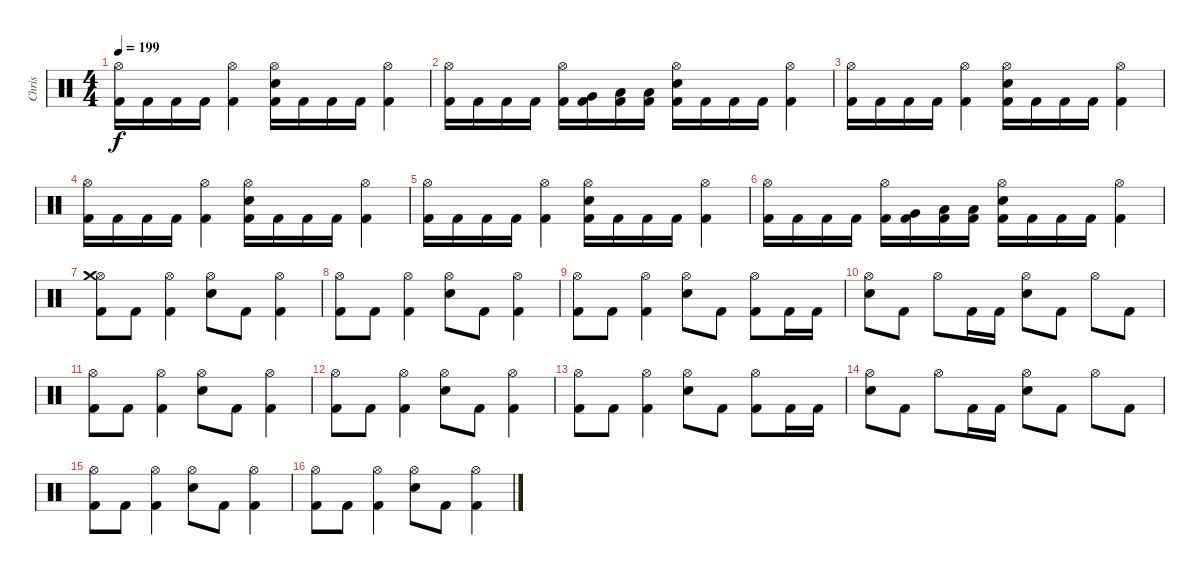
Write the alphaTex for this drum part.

\track ("Chris" "Chris") {instrument percussion}
\staff {score}
\articulation defaults
\ts (4 4)
\tempo 199
\clef neutral
\ks c
("Hi-Hat (open)" "Kick (hit) 2").16{dy f} "Kick (hit) 2".16 "Kick (hit) 2".16 "Kick (hit) 2".16 ("Hi-Hat (open)" "Kick (hit) 2").4 ("Hi-Hat (open)" "Kick (hit) 2" "Electric Snare (hit)").16 "Kick (hit) 2".16 "Kick (hit) 2".16 "Kick (hit) 2".16 ("Hi-Hat (open)" "Kick (hit) 2").4 |
("Hi-Hat (open)" "Kick (hit) 2").16 "Kick (hit) 2".16 "Kick (hit) 2".16 "Kick (hit) 2".16 ("Hi-Hat (open)" "Kick (hit) 2").16 ("Kick (hit) 2" "Very Low Tom (hit)").16 ("Kick (hit) 2" "Low Floor Tom (hit)").16 ("Kick (hit) 2" "Low Floor Tom (hit)").16 ("Hi-Hat (open)" "Kick (hit) 2" "Electric Snare (hit)").16 "Kick (hit) 2".16 "Kick (hit) 2".16 "Kick (hit) 2".16 ("Hi-Hat (open)" "Kick (hit) 2").4 |
("Hi-Hat (open)" "Kick (hit) 2").16 "Kick (hit) 2".16 "Kick (hit) 2".16 "Kick (hit) 2".16 ("Hi-Hat (open)" "Kick (hit) 2").4 ("Hi-Hat (open)" "Kick (hit) 2" "Electric Snare (hit)").16 "Kick (hit) 2".16 "Kick (hit) 2".16 "Kick (hit) 2".16 ("Hi-Hat (open)" "Kick (hit) 2").4 |
("Hi-Hat (open)" "Kick (hit) 2").16 "Kick (hit) 2".16 "Kick (hit) 2".16 "Kick (hit) 2".16 ("Hi-Hat (open)" "Kick (hit) 2").4 ("Hi-Hat (open)" "Kick (hit) 2" "Electric Snare (hit)").16 "Kick (hit) 2".16 "Kick (hit) 2".16 "Kick (hit) 2".16 ("Hi-Hat (open)" "Kick (hit) 2").4 |
("Hi-Hat (open)" "Kick (hit) 2").16 "Kick (hit) 2".16 "Kick (hit) 2".16 "Kick (hit) 2".16 ("Hi-Hat (open)" "Kick (hit) 2").4 ("Hi-Hat (open)" "Kick (hit) 2" "Electric Snare (hit)").16 "Kick (hit) 2".16 "Kick (hit) 2".16 "Kick (hit) 2".16 ("Hi-Hat (open)" "Kick (hit) 2").4 |
("Hi-Hat (open)" "Kick (hit) 2").16 "Kick (hit) 2".16 "Kick (hit) 2".16 "Kick (hit) 2".16 ("Hi-Hat (open)" "Kick (hit) 2").16 ("Kick (hit) 2" "Very Low Tom (hit)").16 ("Kick (hit) 2" "Low Floor Tom (hit)").16 ("Kick (hit) 2" "Low Floor Tom (hit)").16 ("Hi-Hat (open)" "Kick (hit) 2" "Snare (hit) 2").16 "Kick (hit) 2".16 "Kick (hit) 2".16 "Kick (hit) 2".16 ("Hi-Hat (open)" "Kick (hit) 2").4 |
("Hi-Hat (open)" "Kick (hit) 2" "Crash medium (hit)").8 "Kick (hit) 2".8 ("Hi-Hat (open)" "Kick (hit) 2").4 ("Hi-Hat (open)" "Electric Snare (hit)").8 "Kick (hit) 2".8 ("Hi-Hat (open)" "Kick (hit) 2").4 |
("Hi-Hat (open)" "Kick (hit) 2").8 "Kick (hit) 2".8 ("Hi-Hat (open)" "Kick (hit) 2").4 ("Hi-Hat (open)" "Electric Snare (hit)").8 "Kick (hit) 2".8 ("Hi-Hat (open)" "Kick (hit) 2").4 |
("Hi-Hat (open)" "Kick (hit) 2").8 "Kick (hit) 2".8 ("Hi-Hat (open)" "Kick (hit) 2").4 ("Hi-Hat (open)" "Electric Snare (hit)").8 "Kick (hit) 2".8 ("Hi-Hat (open)" "Kick (hit) 2").8 "Kick (hit) 2".16 "Kick (hit) 2".16 |
("Hi-Hat (open)" "Electric Snare (hit)").8 "Kick (hit) 2".8 "Hi-Hat (open)".8 "Kick (hit) 2".16 "Kick (hit) 2".16 ("Hi-Hat (open)" "Electric Snare (hit)").8 "Kick (hit) 2".8 "Hi-Hat (open)".8 "Kick (hit) 2".8 |
("Hi-Hat (open)" "Kick (hit) 2").8 "Kick (hit) 2".8 ("Hi-Hat (open)" "Kick (hit) 2").4 ("Hi-Hat (open)" "Electric Snare (hit)").8 "Kick (hit) 2".8 ("Hi-Hat (open)" "Kick (hit) 2").4 |
("Hi-Hat (open)" "Kick (hit) 2").8 "Kick (hit) 2".8 ("Hi-Hat (open)" "Kick (hit) 2").4 ("Hi-Hat (open)" "Electric Snare (hit)").8 "Kick (hit) 2".8 ("Hi-Hat (open)" "Kick (hit) 2").4 |
("Hi-Hat (open)" "Kick (hit) 2").8 "Kick (hit) 2".8 ("Hi-Hat (open)" "Kick (hit) 2").4 ("Hi-Hat (open)" "Electric Snare (hit)").8 "Kick (hit) 2".8 ("Hi-Hat (open)" "Kick (hit) 2").8 "Kick (hit) 2".16 "Kick (hit) 2".16 |
("Hi-Hat (open)" "Electric Snare (hit)").8 "Kick (hit) 2".8 "Hi-Hat (open)".8 "Kick (hit) 2".16 "Kick (hit) 2".16 ("Hi-Hat (open)" "Electric Snare (hit)").8 "Kick (hit) 2".8 "Hi-Hat (open)".8 "Kick (hit) 2".8 |
("Hi-Hat (open)" "Kick (hit) 2").8 "Kick (hit) 2".8 ("Hi-Hat (open)" "Kick (hit) 2").4 ("Hi-Hat (open)" "Electric Snare (hit)").8 "Kick (hit) 2".8 ("Hi-Hat (open)" "Kick (hit) 2").4 |
("Hi-Hat (open)" "Kick (hit) 2").8 "Kick (hit) 2".8 ("Hi-Hat (open)" "Kick (hit) 2").4 ("Hi-Hat (open)" "Electric Snare (hit)").8 "Kick (hit) 2".8 ("Hi-Hat (open)" "Kick (hit) 2").4
